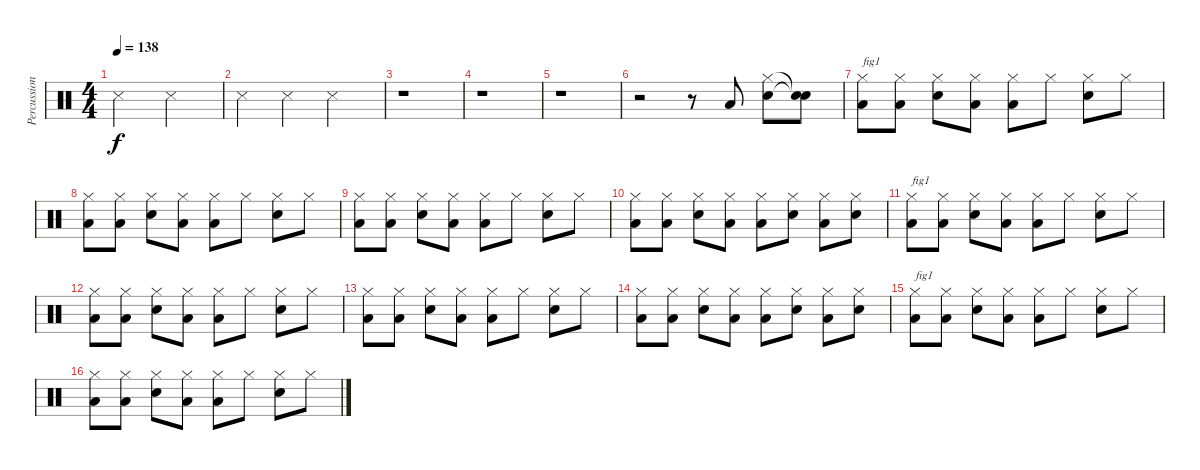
\track ("Percussions" "Percussion") {instrument percussion}
\staff {score}
\articulation defaults
\ts (4 4)
\tempo 138
\clef neutral
\ks c "Metronome (hit)".2{dy f} "Metronome (hit)".2
|
"Metronome (hit)".4 "Metronome (hit)".4 "Metronome (hit)".2 |
r.1 |
r.1 |
r.1 |
r.2 r.8 "Low Floor Tom (hit)".8 ("Snare (hit) 2" "Hi-Hat (closed)").8 ("Snare (hit)"{t} "Snare (hit)"{t}).8 |
("Low Floor Tom (hit)" "Hi-Hat (closed)").8{txt "fig1"} ("Low Floor Tom (hit)" "Hi-Hat (closed)").8 ("Snare (hit) 2" "Hi-Hat (closed)").8 ("Low Floor Tom (hit)" "Hi-Hat (closed)").8 ("Low Floor Tom (hit)" "Hi-Hat (closed)").8 "Hi-Hat (closed)".8 ("Snare (hit) 2" "Hi-Hat (closed)").8 "Hi-Hat (closed)".8 |
("Low Floor Tom (hit)" "Hi-Hat (closed)").8 ("Low Floor Tom (hit)" "Hi-Hat (closed)").8 ("Snare (hit) 2" "Hi-Hat (closed)").8 ("Low Floor Tom (hit)" "Hi-Hat (closed)").8 ("Low Floor Tom (hit)" "Hi-Hat (closed)").8 "Hi-Hat (closed)".8 ("Snare (hit) 2" "Hi-Hat (closed)").8 "Hi-Hat (closed)".8 |
("Low Floor Tom (hit)" "Hi-Hat (closed)").8 ("Low Floor Tom (hit)" "Hi-Hat (closed)").8 ("Snare (hit) 2" "Hi-Hat (closed)").8 ("Low Floor Tom (hit)" "Hi-Hat (closed)").8 ("Low Floor Tom (hit)" "Hi-Hat (closed)").8 "Hi-Hat (closed)".8 ("Snare (hit) 2" "Hi-Hat (closed)").8 "Hi-Hat (closed)".8 |
("Low Floor Tom (hit)" "Hi-Hat (closed)").8 ("Low Floor Tom (hit)" "Hi-Hat (closed)").8 ("Snare (hit) 2" "Hi-Hat (closed)").8 ("Low Floor Tom (hit)" "Hi-Hat (closed)").8 ("Low Floor Tom (hit)" "Hi-Hat (closed)").8 ("Snare (hit) 2" "Hi-Hat (closed)").8 ("Low Floor Tom (hit)" "Hi-Hat (closed)").8 ("Snare (hit) 2" "Hi-Hat (closed)").8 |
("Low Floor Tom (hit)" "Hi-Hat (closed)").8{txt "fig1"} ("Low Floor Tom (hit)" "Hi-Hat (closed)").8 ("Snare (hit) 2" "Hi-Hat (closed)").8 ("Low Floor Tom (hit)" "Hi-Hat (closed)").8 ("Low Floor Tom (hit)" "Hi-Hat (closed)").8 "Hi-Hat (closed)".8 ("Snare (hit) 2" "Hi-Hat (closed)").8 "Hi-Hat (closed)".8 |
("Low Floor Tom (hit)" "Hi-Hat (closed)").8 ("Low Floor Tom (hit)" "Hi-Hat (closed)").8 ("Snare (hit) 2" "Hi-Hat (closed)").8 ("Low Floor Tom (hit)" "Hi-Hat (closed)").8 ("Low Floor Tom (hit)" "Hi-Hat (closed)").8 "Hi-Hat (closed)".8 ("Snare (hit) 2" "Hi-Hat (closed)").8 "Hi-Hat (closed)".8 |
("Low Floor Tom (hit)" "Hi-Hat (closed)").8 ("Low Floor Tom (hit)" "Hi-Hat (closed)").8 ("Snare (hit) 2" "Hi-Hat (closed)").8 ("Low Floor Tom (hit)" "Hi-Hat (closed)").8 ("Low Floor Tom (hit)" "Hi-Hat (closed)").8 "Hi-Hat (closed)".8 ("Snare (hit) 2" "Hi-Hat (closed)").8 "Hi-Hat (closed)".8 |
("Low Floor Tom (hit)" "Hi-Hat (closed)").8 ("Low Floor Tom (hit)" "Hi-Hat (closed)").8 ("Snare (hit) 2" "Hi-Hat (closed)").8 ("Low Floor Tom (hit)" "Hi-Hat (closed)").8 ("Low Floor Tom (hit)" "Hi-Hat (closed)").8 ("Snare (hit) 2" "Hi-Hat (closed)").8 ("Low Floor Tom (hit)" "Hi-Hat (closed)").8 ("Snare (hit) 2" "Hi-Hat (closed)").8 |
("Low Floor Tom (hit)" "Hi-Hat (closed)").8{txt "fig1"} ("Low Floor Tom (hit)" "Hi-Hat (closed)").8 ("Snare (hit) 2" "Hi-Hat (closed)").8 ("Low Floor Tom (hit)" "Hi-Hat (closed)").8 ("Low Floor Tom (hit)" "Hi-Hat (closed)").8 "Hi-Hat (closed)".8 ("Snare (hit) 2" "Hi-Hat (closed)").8 "Hi-Hat (closed)".8 |
("Low Floor Tom (hit)" "Hi-Hat (closed)").8 ("Low Floor Tom (hit)" "Hi-Hat (closed)").8 ("Snare (hit) 2" "Hi-Hat (closed)").8 ("Low Floor Tom (hit)" "Hi-Hat (closed)").8 ("Low Floor Tom (hit)" "Hi-Hat (closed)").8 "Hi-Hat (closed)".8 ("Snare (hit) 2" "Hi-Hat (closed)").8 "Hi-Hat (closed)".8
